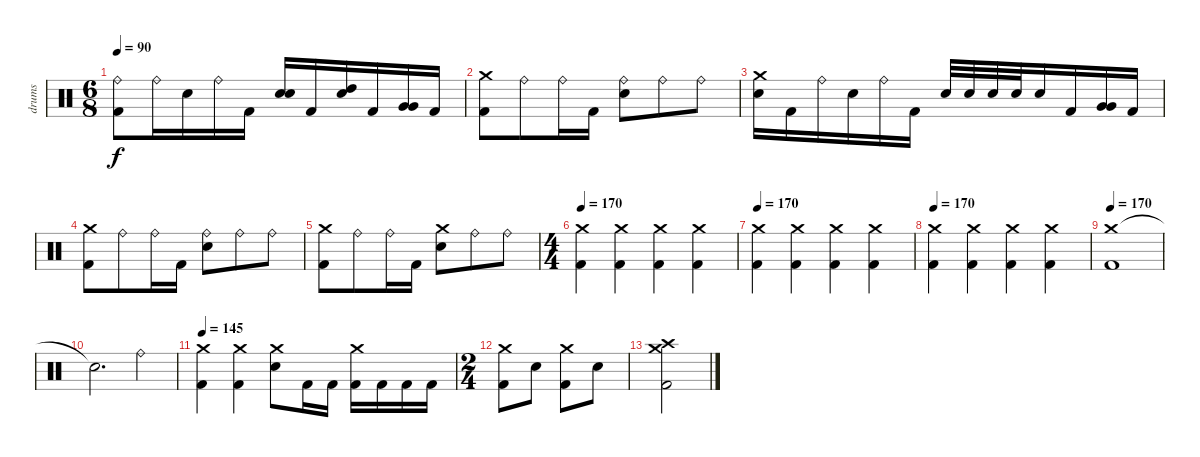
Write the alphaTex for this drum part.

\track ("drums" "drums") {instrument percussion}
\staff {score}
\articulation defaults
\ts (6 8)
\tempo 90
\clef neutral
\ks c
("Ride (bell)" "Kick (hit) 2").8{dy f} "Ride (bell)".16 "Electric Snare (hit)".16 "Ride (bell)".16 "Kick (hit) 2".16 ("Electric Snare (hit)" "Electric Snare (hit)").16 "Kick (hit) 2".16 ("High Tom (hit)" "Electric Snare (hit)").16 "Kick (hit) 2".16 ("Very Low Tom (hit)" "Very Low Tom (hit)").16 "Kick (hit) 2".16 |
("Crash medium (hit)" "Kick (hit) 2").8 "Ride (bell)".8 "Ride (bell)".16 "Kick (hit) 2".16 ("Ride (bell)" "Electric Snare (hit)").8 "Ride (bell)".8 "Ride (bell)".8 |
("Crash medium (hit)" "Electric Snare (hit)").16 "Kick (hit) 2".16 "Ride (bell)".16 "Electric Snare (hit)".16 "Ride (bell)".16 "Kick (hit) 2".16 "Electric Snare (hit)".32 "Electric Snare (hit)".32 "Electric Snare (hit)".32 "Electric Snare (hit)".32 "Electric Snare (hit)".16 "Kick (hit) 2".16 ("Very Low Tom (hit)" "Very Low Tom (hit)").16 "Kick (hit) 2".16 |
("Crash medium (hit)" "Kick (hit) 2").8 "Ride (bell)".8 "Ride (bell)".16 "Kick (hit) 2".16 ("Ride (bell)" "Electric Snare (hit)").8 "Ride (bell)".8 "Ride (bell)".8 |
("Crash medium (hit)" "Kick (hit) 2").8 "Ride (bell)".8 "Ride (bell)".16 "Kick (hit) 2".16 ("Crash medium (hit)" "Electric Snare (hit)").8 "Ride (bell)".8 "Ride (bell)".8 |
\ts (4 4)
\tempo 170
("Crash medium (hit)" "Kick (hit) 2").4 ("Crash medium (hit)" "Kick (hit) 2").4 ("Crash medium (hit)" "Kick (hit) 2").4 ("Crash medium (hit)" "Kick (hit) 2").4 |
\tempo 170
("Crash medium (hit)" "Kick (hit) 2").4 ("Crash medium (hit)" "Kick (hit) 2").4 ("Crash medium (hit)" "Kick (hit) 2").4 ("Crash medium (hit)" "Kick (hit) 2").4 |
\tempo 170
("Crash medium (hit)" "Kick (hit) 2").4 ("Crash medium (hit)" "Kick (hit) 2").4 ("Crash medium (hit)" "Kick (hit) 2").4 ("Crash medium (hit)" "Kick (hit) 2").4 |
\tempo 170
("Crash medium (hit)" "Kick (hit) 2").1 |
"Snare (hit)"{t}.2{d} "Ride (bell)".4 |
\tempo 145
("Crash medium (hit)" "Kick (hit) 2").4 ("Crash medium (hit)" "Kick (hit) 2").4 ("Crash medium (hit)" "Electric Snare (hit)").8 "Kick (hit) 2".16 "Kick (hit) 2".16 ("Crash medium (hit)" "Kick (hit) 2").16 "Kick (hit) 2".16 "Kick (hit) 2".16 "Kick (hit) 2".16 |
\ts (2 4)
("Crash medium (hit)" "Kick (hit) 2").8 "Electric Snare (hit)".8 ("Crash medium (hit)" "Kick (hit) 2").8 "Electric Snare (hit)".8 |
("Crash medium (hit)" "Crash high (hit)" "Kick (hit) 2").2
